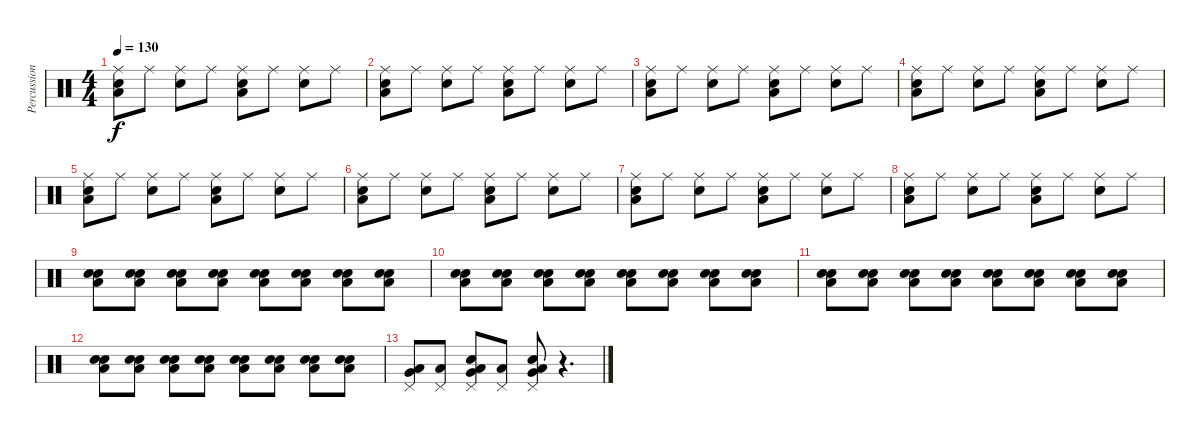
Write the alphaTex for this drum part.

\track ("Percussions" "Percussion") {instrument percussion}
\staff {score}
\articulation defaults
\ts (4 4)
\tempo 130
\clef neutral
\ks c
("Low Floor Tom (hit)" "Snare (hit) 2" "Ride (middle)").8{dy f} "Ride (middle)".8 ("Snare (hit) 2" "Ride (middle)").8 "Ride (middle)".8 ("Low Floor Tom (hit)" "Snare (hit) 2" "Ride (middle)").8 "Ride (middle)".8 ("Snare (hit) 2" "Ride (middle)").8 "Ride (middle)".8 |
("Low Floor Tom (hit)" "Snare (hit) 2" "Ride (middle)").8 "Ride (middle)".8 ("Snare (hit) 2" "Ride (middle)").8 "Ride (middle)".8 ("Low Floor Tom (hit)" "Snare (hit) 2" "Ride (middle)").8 "Ride (middle)".8 ("Snare (hit) 2" "Ride (middle)").8 "Ride (middle)".8 |
("Low Floor Tom (hit)" "Snare (hit) 2" "Ride (middle)").8 "Ride (middle)".8 ("Snare (hit) 2" "Ride (middle)").8 "Ride (middle)".8 ("Low Floor Tom (hit)" "Snare (hit) 2" "Ride (middle)").8 "Ride (middle)".8 ("Snare (hit) 2" "Ride (middle)").8 "Ride (middle)".8 |
("Low Floor Tom (hit)" "Snare (hit) 2" "Ride (middle)").8 "Ride (middle)".8 ("Snare (hit) 2" "Ride (middle)").8 "Ride (middle)".8 ("Low Floor Tom (hit)" "Snare (hit) 2" "Ride (middle)").8 "Ride (middle)".8 ("Snare (hit) 2" "Ride (middle)").8 "Ride (middle)".8 |
("Low Floor Tom (hit)" "Snare (hit) 2" "Ride (middle)").8 "Ride (middle)".8 ("Snare (hit) 2" "Ride (middle)").8 "Ride (middle)".8 ("Low Floor Tom (hit)" "Snare (hit) 2" "Ride (middle)").8 "Ride (middle)".8 ("Snare (hit) 2" "Ride (middle)").8 "Ride (middle)".8 |
("Low Floor Tom (hit)" "Snare (hit) 2" "Ride (middle)").8 "Ride (middle)".8 ("Snare (hit) 2" "Ride (middle)").8 "Ride (middle)".8 ("Low Floor Tom (hit)" "Snare (hit) 2" "Ride (middle)").8 "Ride (middle)".8 ("Snare (hit) 2" "Ride (middle)").8 "Ride (middle)".8 |
("Low Floor Tom (hit)" "Snare (hit) 2" "Ride (middle)").8 "Ride (middle)".8 ("Snare (hit) 2" "Ride (middle)").8 "Ride (middle)".8 ("Low Floor Tom (hit)" "Snare (hit) 2" "Ride (middle)").8 "Ride (middle)".8 ("Snare (hit) 2" "Ride (middle)").8 "Ride (middle)".8 |
("Low Floor Tom (hit)" "Snare (hit) 2" "Ride (middle)").8 "Ride (middle)".8 ("Snare (hit) 2" "Ride (middle)").8 "Ride (middle)".8 ("Low Floor Tom (hit)" "Snare (hit) 2" "Ride (middle)").8 "Ride (middle)".8 ("Snare (hit) 2" "Ride (middle)").8 "Ride (middle)".8 |
("Low Floor Tom (hit)" "Snare (hit) 2" "Snare (hit) 2").8 ("Low Floor Tom (hit)" "Snare (hit) 2" "Snare (hit) 2").8 ("Low Floor Tom (hit)" "Snare (hit) 2" "Snare (hit) 2").8 ("Low Floor Tom (hit)" "Snare (hit) 2" "Snare (hit) 2").8 ("Low Floor Tom (hit)" "Snare (hit) 2" "Snare (hit) 2").8 ("Low Floor Tom (hit)" "Snare (hit) 2" "Snare (hit) 2").8 ("Low Floor Tom (hit)" "Snare (hit) 2" "Snare (hit) 2").8 ("Low Floor Tom (hit)" "Snare (hit) 2" "Snare (hit) 2").8 |
("Low Floor Tom (hit)" "Snare (hit) 2" "Snare (hit) 2").8 ("Low Floor Tom (hit)" "Snare (hit) 2" "Snare (hit) 2").8 ("Low Floor Tom (hit)" "Snare (hit) 2" "Snare (hit) 2").8 ("Low Floor Tom (hit)" "Snare (hit) 2" "Snare (hit) 2").8 ("Low Floor Tom (hit)" "Snare (hit) 2" "Snare (hit) 2").8 ("Low Floor Tom (hit)" "Snare (hit) 2" "Snare (hit) 2").8 ("Low Floor Tom (hit)" "Snare (hit) 2" "Snare (hit) 2").8 ("Low Floor Tom (hit)" "Snare (hit) 2" "Snare (hit) 2").8 |
("Low Floor Tom (hit)" "Snare (hit) 2" "Snare (hit) 2").8 ("Low Floor Tom (hit)" "Snare (hit) 2" "Snare (hit) 2").8 ("Low Floor Tom (hit)" "Snare (hit) 2" "Snare (hit) 2").8 ("Low Floor Tom (hit)" "Snare (hit) 2" "Snare (hit) 2").8 ("Low Floor Tom (hit)" "Snare (hit) 2" "Snare (hit) 2").8 ("Low Floor Tom (hit)" "Snare (hit) 2" "Snare (hit) 2").8 ("Low Floor Tom (hit)" "Snare (hit) 2" "Snare (hit) 2").8 ("Low Floor Tom (hit)" "Snare (hit) 2" "Snare (hit) 2").8 |
("Low Floor Tom (hit)" "Snare (hit) 2" "Snare (hit) 2").8 ("Low Floor Tom (hit)" "Snare (hit) 2" "Snare (hit) 2").8 ("Low Floor Tom (hit)" "Snare (hit) 2" "Snare (hit) 2").8 ("Low Floor Tom (hit)" "Snare (hit) 2" "Snare (hit) 2").8 ("Low Floor Tom (hit)" "Snare (hit) 2" "Snare (hit) 2").8 ("Low Floor Tom (hit)" "Snare (hit) 2" "Snare (hit) 2").8 ("Low Floor Tom (hit)" "Snare (hit) 2" "Snare (hit) 2").8 ("Low Floor Tom (hit)" "Snare (hit) 2" "Snare (hit) 2").8 |
("Low Floor Tom (hit)" "Very Low Tom (hit)" "Pedal Hi-Hat (hit)").8 ("Low Floor Tom (hit)" "Pedal Hi-Hat (hit)").8 ("Low Floor Tom (hit)" "Snare (hit) 2" "Very Low Tom (hit)" "Pedal Hi-Hat (hit)").8 ("Low Floor Tom (hit)" "Pedal Hi-Hat (hit)").8 ("Low Floor Tom (hit)" "Snare (hit) 2" "Very Low Tom (hit)" "Pedal Hi-Hat (hit)").8 r.4{d}
